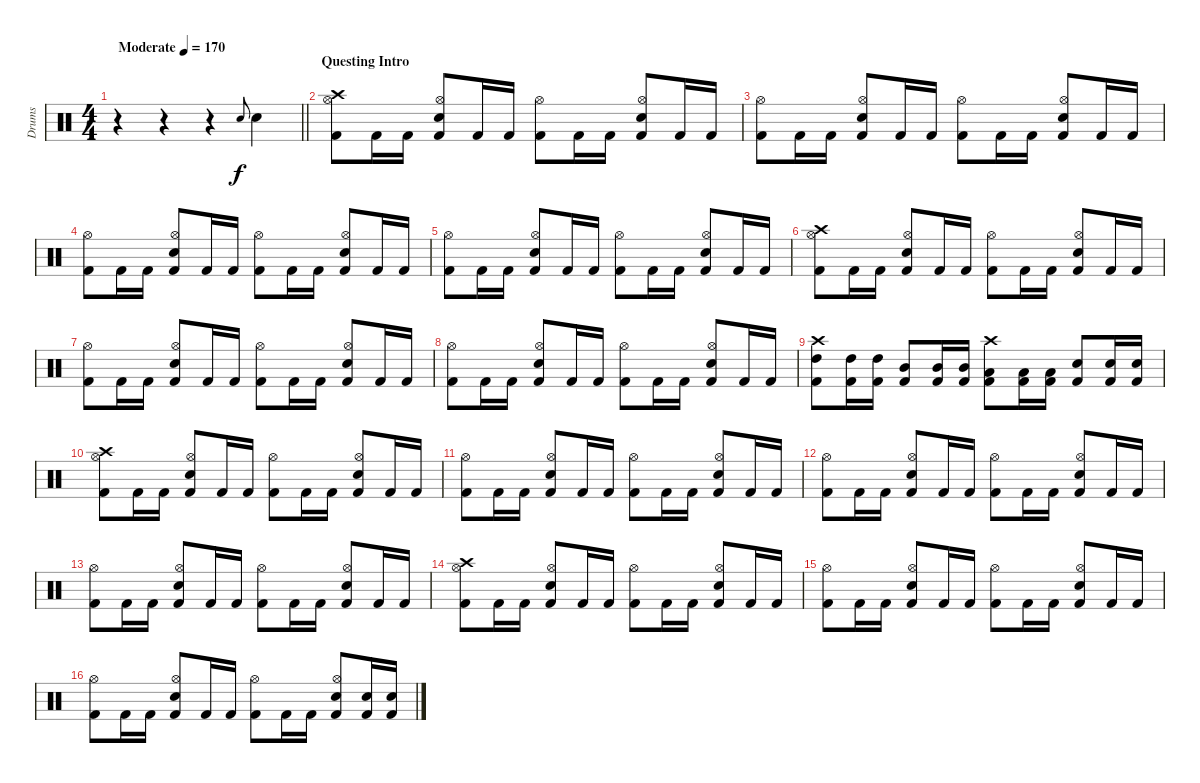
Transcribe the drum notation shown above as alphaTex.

\track ("Drums" "Drums") {instrument percussion}
\staff {score}
\articulation defaults
\ts (4 4)
\tempo (170 "Moderate")
\clef neutral
\barLineRight lightlight
\ks c
r.4{dy f} r.4 r.4 "Snare (hit) 2".8{gr onbeat} "Snare (hit) 2".4 |
\section ("" "Questing Intro")
("Crash high (hit)" "Hi-Hat (open)" "Kick (hit) 2").8 "Kick (hit) 2".16 "Kick (hit) 2".16 ("Hi-Hat (open)" "Snare (hit) 2" "Kick (hit) 2").8 "Kick (hit) 2".16 "Kick (hit) 2".16 ("Hi-Hat (open)" "Kick (hit) 2").8 "Kick (hit) 2".16 "Kick (hit) 2".16 ("Hi-Hat (open)" "Snare (hit) 2" "Kick (hit) 2").8 "Kick (hit) 2".16 "Kick (hit) 2".16 |
("Hi-Hat (open)" "Kick (hit) 2").8 "Kick (hit) 2".16 "Kick (hit) 2".16 ("Hi-Hat (open)" "Snare (hit) 2" "Kick (hit) 2").8 "Kick (hit) 2".16 "Kick (hit) 2".16 ("Hi-Hat (open)" "Kick (hit) 2").8 "Kick (hit) 2".16 "Kick (hit) 2".16 ("Hi-Hat (open)" "Snare (hit) 2" "Kick (hit) 2").8 "Kick (hit) 2".16 "Kick (hit) 2".16 |
("Hi-Hat (open)" "Kick (hit) 2").8 "Kick (hit) 2".16 "Kick (hit) 2".16 ("Hi-Hat (open)" "Snare (hit) 2" "Kick (hit) 2").8 "Kick (hit) 2".16 "Kick (hit) 2".16 ("Hi-Hat (open)" "Kick (hit) 2").8 "Kick (hit) 2".16 "Kick (hit) 2".16 ("Hi-Hat (open)" "Snare (hit) 2" "Kick (hit) 2").8 "Kick (hit) 2".16 "Kick (hit) 2".16 |
("Hi-Hat (open)" "Kick (hit) 2").8 "Kick (hit) 2".16 "Kick (hit) 2".16 ("Hi-Hat (open)" "Snare (hit) 2" "Kick (hit) 2").8 "Kick (hit) 2".16 "Kick (hit) 2".16 ("Hi-Hat (open)" "Kick (hit) 2").8 "Kick (hit) 2".16 "Kick (hit) 2".16 ("Hi-Hat (open)" "Snare (hit) 2" "Kick (hit) 2").8 "Kick (hit) 2".16 "Kick (hit) 2".16 |
("Crash high (hit)" "Hi-Hat (open)" "Kick (hit) 2").8 "Kick (hit) 2".16 "Kick (hit) 2".16 ("Hi-Hat (open)" "Snare (hit) 2" "Kick (hit) 2").8 "Kick (hit) 2".16 "Kick (hit) 2".16 ("Hi-Hat (open)" "Kick (hit) 2").8 "Kick (hit) 2".16 "Kick (hit) 2".16 ("Hi-Hat (open)" "Snare (hit) 2" "Kick (hit) 2").8 "Kick (hit) 2".16 "Kick (hit) 2".16 |
("Hi-Hat (open)" "Kick (hit) 2").8 "Kick (hit) 2".16 "Kick (hit) 2".16 ("Hi-Hat (open)" "Snare (hit) 2" "Kick (hit) 2").8 "Kick (hit) 2".16 "Kick (hit) 2".16 ("Hi-Hat (open)" "Kick (hit) 2").8 "Kick (hit) 2".16 "Kick (hit) 2".16 ("Hi-Hat (open)" "Snare (hit) 2" "Kick (hit) 2").8 "Kick (hit) 2".16 "Kick (hit) 2".16 |
("Hi-Hat (open)" "Kick (hit) 2").8 "Kick (hit) 2".16 "Kick (hit) 2".16 ("Hi-Hat (open)" "Snare (hit) 2" "Kick (hit) 2").8 "Kick (hit) 2".16 "Kick (hit) 2".16 ("Hi-Hat (open)" "Kick (hit) 2").8 "Kick (hit) 2".16 "Kick (hit) 2".16 ("Hi-Hat (open)" "Snare (hit) 2" "Kick (hit) 2").8 "Kick (hit) 2".16 "Kick (hit) 2".16 |
("Crash high (hit)" "High Tom (hit)" "Kick (hit) 2").8 ("High Tom (hit)" "Kick (hit) 2").16 ("High Tom (hit)" "Kick (hit) 2").16 ("Mid Tom (hit)" "Kick (hit) 2").8 ("Mid Tom (hit)" "Kick (hit) 2").16 ("Mid Tom (hit)" "Kick (hit) 2").16 ("Crash high (hit)" "Low Tom (hit)" "Kick (hit) 2").8 ("Low Tom (hit)" "Kick (hit) 2").16 ("Low Tom (hit)" "Kick (hit) 2").16 ("Snare (hit) 2" "Kick (hit) 2").8 ("Snare (hit) 2" "Kick (hit) 2").16 ("Snare (hit) 2" "Kick (hit) 2").16 |
("Crash high (hit)" "Hi-Hat (open)" "Kick (hit) 2").8 "Kick (hit) 2".16 "Kick (hit) 2".16 ("Hi-Hat (open)" "Snare (hit) 2" "Kick (hit) 2").8 "Kick (hit) 2".16 "Kick (hit) 2".16 ("Hi-Hat (open)" "Kick (hit) 2").8 "Kick (hit) 2".16 "Kick (hit) 2".16 ("Hi-Hat (open)" "Snare (hit) 2" "Kick (hit) 2").8 "Kick (hit) 2".16 "Kick (hit) 2".16 |
("Hi-Hat (open)" "Kick (hit) 2").8 "Kick (hit) 2".16 "Kick (hit) 2".16 ("Hi-Hat (open)" "Snare (hit) 2" "Kick (hit) 2").8 "Kick (hit) 2".16 "Kick (hit) 2".16 ("Hi-Hat (open)" "Kick (hit) 2").8 "Kick (hit) 2".16 "Kick (hit) 2".16 ("Hi-Hat (open)" "Snare (hit) 2" "Kick (hit) 2").8 "Kick (hit) 2".16 "Kick (hit) 2".16 |
("Hi-Hat (open)" "Kick (hit) 2").8 "Kick (hit) 2".16 "Kick (hit) 2".16 ("Hi-Hat (open)" "Snare (hit) 2" "Kick (hit) 2").8 "Kick (hit) 2".16 "Kick (hit) 2".16 ("Hi-Hat (open)" "Kick (hit) 2").8 "Kick (hit) 2".16 "Kick (hit) 2".16 ("Hi-Hat (open)" "Snare (hit) 2" "Kick (hit) 2").8 "Kick (hit) 2".16 "Kick (hit) 2".16 |
("Hi-Hat (open)" "Kick (hit) 2").8 "Kick (hit) 2".16 "Kick (hit) 2".16 ("Hi-Hat (open)" "Snare (hit) 2" "Kick (hit) 2").8 "Kick (hit) 2".16 "Kick (hit) 2".16 ("Hi-Hat (open)" "Kick (hit) 2").8 "Kick (hit) 2".16 "Kick (hit) 2".16 ("Hi-Hat (open)" "Snare (hit) 2" "Kick (hit) 2").8 "Kick (hit) 2".16 "Kick (hit) 2".16 |
("Crash high (hit)" "Hi-Hat (open)" "Kick (hit) 2").8 "Kick (hit) 2".16 "Kick (hit) 2".16 ("Hi-Hat (open)" "Snare (hit) 2" "Kick (hit) 2").8 "Kick (hit) 2".16 "Kick (hit) 2".16 ("Hi-Hat (open)" "Kick (hit) 2").8 "Kick (hit) 2".16 "Kick (hit) 2".16 ("Hi-Hat (open)" "Snare (hit) 2" "Kick (hit) 2").8 "Kick (hit) 2".16 "Kick (hit) 2".16 |
("Hi-Hat (open)" "Kick (hit) 2").8 "Kick (hit) 2".16 "Kick (hit) 2".16 ("Hi-Hat (open)" "Snare (hit) 2" "Kick (hit) 2").8 "Kick (hit) 2".16 "Kick (hit) 2".16 ("Hi-Hat (open)" "Kick (hit) 2").8 "Kick (hit) 2".16 "Kick (hit) 2".16 ("Hi-Hat (open)" "Snare (hit) 2" "Kick (hit) 2").8 "Kick (hit) 2".16 "Kick (hit) 2".16 |
("Hi-Hat (open)" "Kick (hit) 2").8 "Kick (hit) 2".16 "Kick (hit) 2".16 ("Hi-Hat (open)" "Snare (hit) 2" "Kick (hit) 2").8 "Kick (hit) 2".16 "Kick (hit) 2".16 ("Hi-Hat (open)" "Kick (hit) 2").8 "Kick (hit) 2".16 "Kick (hit) 2".16 ("Hi-Hat (open)" "Snare (hit) 2" "Kick (hit) 2").8 ("Snare (hit) 2" "Kick (hit) 2").16 ("Snare (hit) 2" "Kick (hit) 2").16
